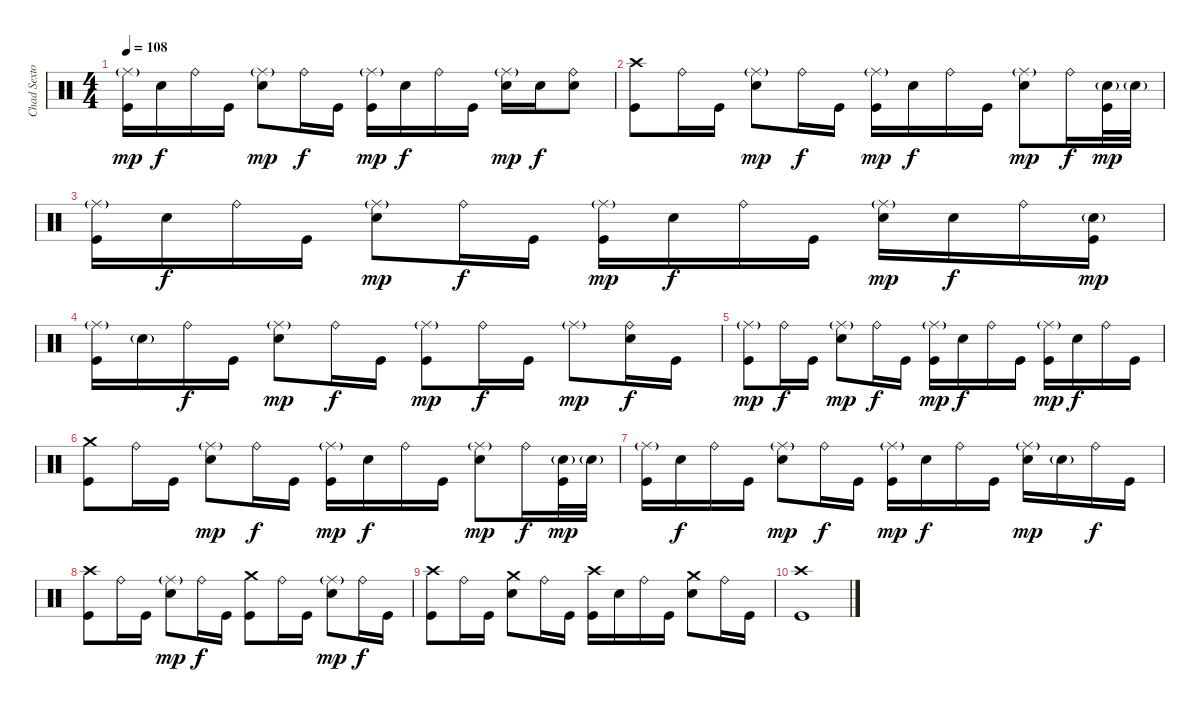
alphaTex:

\track ("Chad Sexton Drums" "Chad Sexto") {instrument percussion}
\staff {score}
\articulation defaults
\ts (4 4)
\tempo 108
\clef neutral
\ks c
("Ride (middle)"{g} "Kick (hit)").16{dy mp} "Electric Snare (hit)".16{dy f} "Ride (bell)".16 "Kick (hit)".16 ("Ride (middle)"{g} "Electric Snare (hit)").8{dy mp} "Ride (bell)".16{dy f} "Kick (hit)".16 ("Ride (middle)"{g} "Kick (hit)").16{dy mp} "Electric Snare (hit)".16{dy f} "Ride (bell)".16 "Kick (hit)".16 ("Ride (middle)"{g} "Electric Snare (hit)").16{dy mp} "Electric Snare (hit)".16{dy f} ("Ride (bell)" "Electric Snare (hit)").8 |
("Crash high (hit)" "Kick (hit)").8 "Ride (bell)".16 "Kick (hit)".16 ("Ride (middle)"{g} "Electric Snare (hit)").8{dy mp} "Ride (bell)".16{dy f} "Kick (hit)".16 ("Ride (middle)"{g} "Kick (hit)").16{dy mp} "Electric Snare (hit)".16{dy f} "Ride (bell)".16 "Kick (hit)".16 ("Ride (middle)"{g} "Electric Snare (hit)").8{dy mp} "Ride (bell)".16{dy f} ("Electric Snare (hit)"{g} "Kick (hit)").32{dy mp} "Electric Snare (hit)"{g}.32 |
("Ride (middle)"{g} "Kick (hit)").16 "Electric Snare (hit)".16{dy f} "Ride (bell)".16 "Kick (hit)".16 ("Ride (middle)"{g} "Electric Snare (hit)").8{dy mp} "Ride (bell)".16{dy f} "Kick (hit)".16 ("Ride (middle)"{g} "Kick (hit)").16{dy mp} "Electric Snare (hit)".16{dy f} "Ride (bell)".16 "Kick (hit)".16 ("Ride (middle)"{g} "Electric Snare (hit)").16{dy mp} "Electric Snare (hit)".16{dy f} "Ride (bell)".16 ("Electric Snare (hit)"{g} "Kick (hit)").16{dy mp} |
("Ride (middle)"{g} "Kick (hit)").16 "Electric Snare (hit)"{g}.16 "Ride (bell)".16{dy f} "Kick (hit)".16 ("Ride (middle)"{g} "Electric Snare (hit)").8{dy mp} "Ride (bell)".16{dy f} "Kick (hit)".16 ("Ride (middle)"{g} "Kick (hit)").8{dy mp} "Ride (bell)".16{dy f} "Kick (hit)".16 "Ride (middle)"{g}.8{dy mp} ("Ride (bell)" "Electric Snare (hit)").16{dy f} "Kick (hit)".16 |
("Ride (middle)"{g} "Kick (hit)").8{dy mp} "Ride (bell)".16{dy f} "Kick (hit)".16 ("Ride (middle)"{g} "Electric Snare (hit)").8{dy mp} "Ride (bell)".16{dy f} "Kick (hit)".16 ("Ride (middle)"{g} "Kick (hit)").16{dy mp} "Electric Snare (hit)".16{dy f} "Ride (bell)".16 "Kick (hit)".16 ("Ride (middle)"{g} "Kick (hit)").16{dy mp} "Electric Snare (hit)".16{dy f} "Ride (bell)".16 "Kick (hit)".16 |
("Crash medium (hit)" "Kick (hit)").8 "Ride (bell)".16 "Kick (hit)".16 ("Ride (middle)"{g} "Electric Snare (hit)").8{dy mp} "Ride (bell)".16{dy f} "Kick (hit)".16 ("Ride (middle)"{g} "Kick (hit)").16{dy mp} "Electric Snare (hit)".16{dy f} "Ride (bell)".16 "Kick (hit)".16 ("Ride (middle)"{g} "Electric Snare (hit)").8{dy mp} "Ride (bell)".16{dy f} ("Electric Snare (hit)"{g} "Kick (hit)").32{dy mp} "Electric Snare (hit)"{g}.32 |
("Ride (middle)"{g} "Kick (hit)").16 "Electric Snare (hit)".16{dy f} "Ride (bell)".16 "Kick (hit)".16 ("Ride (middle)"{g} "Electric Snare (hit)").8{dy mp} "Ride (bell)".16{dy f} "Kick (hit)".16 ("Ride (middle)"{g} "Kick (hit)").16{dy mp} "Electric Snare (hit)".16{dy f} "Ride (bell)".16 "Kick (hit)".16 ("Ride (middle)"{g} "Electric Snare (hit)").16{dy mp} "Electric Snare (hit)"{g}.16 "Ride (bell)".16{dy f} "Kick (hit)".16 |
("Crash high (hit)" "Kick (hit)").8 "Ride (bell)".16 "Kick (hit)".16 ("Ride (middle)"{g} "Electric Snare (hit)").8{dy mp} "Ride (bell)".16{dy f} "Kick (hit)".16 ("Crash medium (hit)" "Kick (hit)").8 "Ride (bell)".16 "Kick (hit)".16 ("Ride (middle)"{g} "Electric Snare (hit)").8{dy mp} "Ride (bell)".16{dy f} "Kick (hit)".16 |
("Crash high (hit)" "Kick (hit)").8 "Ride (bell)".16 "Kick (hit)".16 ("Crash medium (hit)" "Electric Snare (hit)").8 "Ride (bell)".16 "Kick (hit)".16 ("Crash high (hit)" "Kick (hit)").16 "Electric Snare (hit)".16 "Ride (bell)".16 "Kick (hit)".16 ("Crash medium (hit)" "Electric Snare (hit)").8 "Ride (bell)".16 "Kick (hit)".16 |
("Crash high (hit)" "Kick (hit)").1
